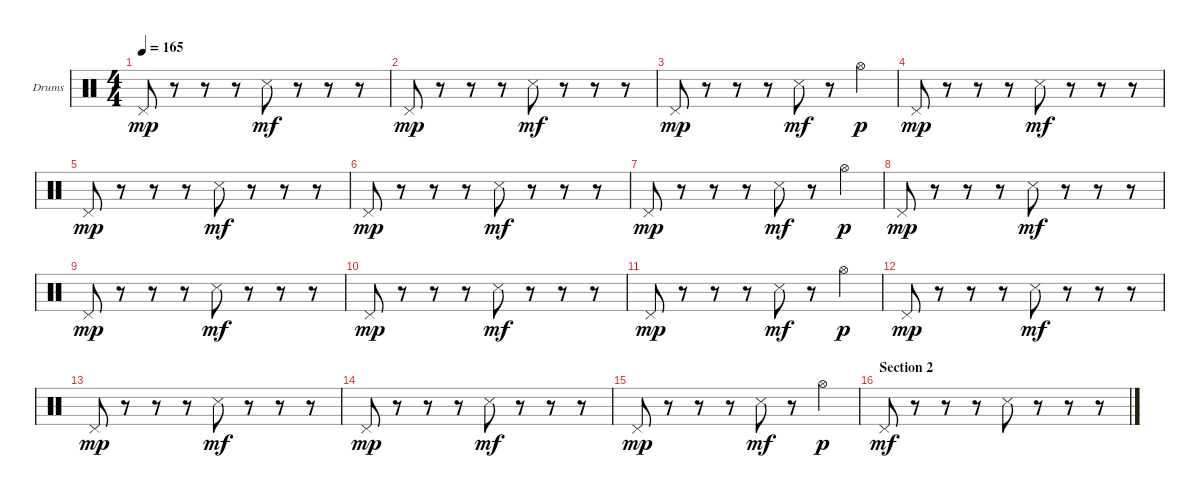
\bracketExtendMode groupsimilarinstruments
\firstSystemTrackNameOrientation horizontal
\otherSystemsTrackNameOrientation horizontal
\track ("Drumkit" "Drums") {instrument percussion}
\staff {score}
\articulation defaults
\ts (4 4)
\tempo 165
\clef neutral
\ks c "Pedal Hi-Hat (hit)".8{dy mp}
r.8 r.8 r.8 "Snare (side stick) 3".8{dy mf} r.8 r.8 r.8 |
"Pedal Hi-Hat (hit)".8{dy mp} r.8 r.8 r.8 "Snare (side stick) 3".8{dy mf} r.8 r.8 r.8 |
"Pedal Hi-Hat (hit)".8{dy mp} r.8 r.8 r.8 "Snare (side stick) 3".8{dy mf} r.8 "Hi-Hat (open)".4{dy p} |
"Pedal Hi-Hat (hit)".8{dy mp} r.8 r.8 r.8 "Snare (side stick) 3".8{dy mf} r.8 r.8 r.8 |
"Pedal Hi-Hat (hit)".8{dy mp} r.8 r.8 r.8 "Snare (side stick) 3".8{dy mf} r.8 r.8 r.8 |
"Pedal Hi-Hat (hit)".8{dy mp} r.8 r.8 r.8 "Snare (side stick) 3".8{dy mf} r.8 r.8 r.8 |
"Pedal Hi-Hat (hit)".8{dy mp} r.8 r.8 r.8 "Snare (side stick) 3".8{dy mf} r.8 "Hi-Hat (open)".4{dy p} |
"Pedal Hi-Hat (hit)".8{dy mp} r.8 r.8 r.8 "Snare (side stick) 3".8{dy mf} r.8 r.8 r.8 |
"Pedal Hi-Hat (hit)".8{dy mp} r.8 r.8 r.8 "Snare (side stick) 3".8{dy mf} r.8 r.8 r.8 |
"Pedal Hi-Hat (hit)".8{dy mp} r.8 r.8 r.8 "Snare (side stick) 3".8{dy mf} r.8 r.8 r.8 |
"Pedal Hi-Hat (hit)".8{dy mp} r.8 r.8 r.8 "Snare (side stick) 3".8{dy mf} r.8 "Hi-Hat (open)".4{dy p} |
"Pedal Hi-Hat (hit)".8{dy mp} r.8 r.8 r.8 "Snare (side stick) 3".8{dy mf} r.8 r.8 r.8 |
"Pedal Hi-Hat (hit)".8{dy mp} r.8 r.8 r.8 "Snare (side stick) 3".8{dy mf} r.8 r.8 r.8 |
"Pedal Hi-Hat (hit)".8{dy mp} r.8 r.8 r.8 "Snare (side stick) 3".8{dy mf} r.8 r.8 r.8 |
"Pedal Hi-Hat (hit)".8{dy mp} r.8 r.8 r.8 "Snare (side stick) 3".8{dy mf} r.8 "Hi-Hat (open)".4{dy p} |
\section ("" "Section 2")
"Pedal Hi-Hat (hit)".8{dy mf} r.8 r.8 r.8 "Snare (side stick) 3".8 r.8 r.8 r.8
